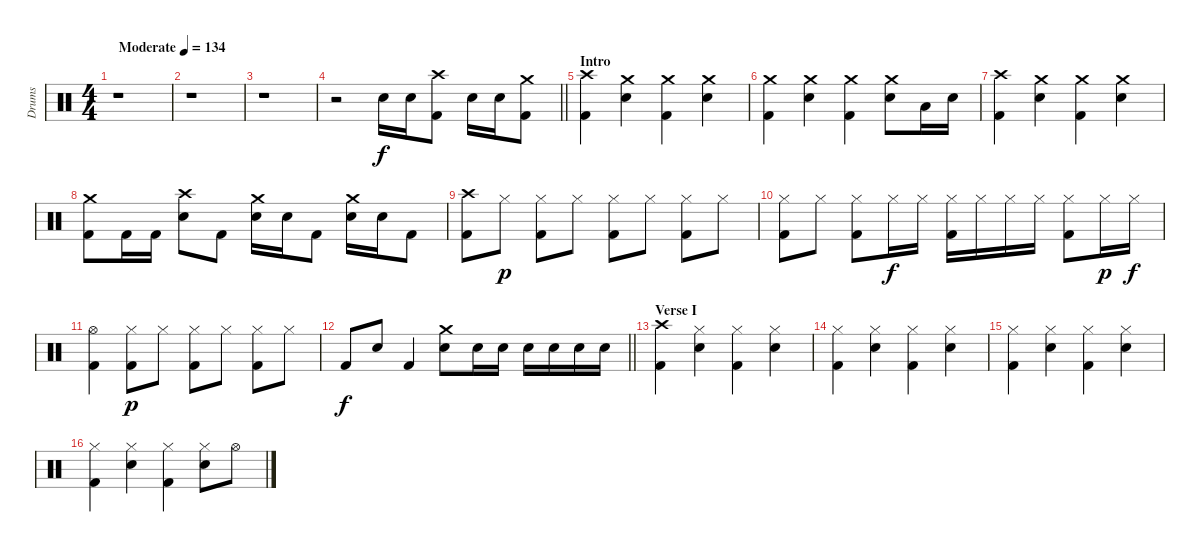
\track ("Drums" "Drums") {instrument percussion}
\staff {score}
\articulation defaults
\ts (4 4)
\tempo (134 "Moderate")
\clef neutral
\ks c
r.1{dy f} |
r.1 |
r.1 |
\barLineRight lightlight
r.2 "Snare (hit) 2".16 "Snare (hit) 2".16 ("Crash high (hit)" "Kick (hit) 2").8 "Snare (hit) 2".16 "Snare (hit) 2".16 ("Crash medium (hit)" "Kick (hit) 2").8 |
\section ("" "Intro")
("Crash high (hit)" "Kick (hit) 2").4 ("Crash medium (hit)" "Snare (hit) 2").4 ("Crash medium (hit)" "Kick (hit) 2").4 ("Crash medium (hit)" "Snare (hit) 2").4 |
("Crash medium (hit)" "Kick (hit) 2").4 ("Crash medium (hit)" "Snare (hit) 2").4 ("Crash medium (hit)" "Kick (hit) 2").4 ("Crash medium (hit)" "Snare (hit) 2").8 "Low Tom (hit)".16 "Snare (hit) 2".16 |
("Crash high (hit)" "Kick (hit) 2").4 ("Crash medium (hit)" "Snare (hit) 2").4 ("Crash medium (hit)" "Kick (hit) 2").4 ("Crash medium (hit)" "Snare (hit) 2").4 |
("Crash medium (hit)" "Kick (hit) 2").8 "Kick (hit) 2".16 "Kick (hit) 2".16 ("Crash high (hit)" "Snare (hit) 2").8 "Kick (hit) 2".8 ("Crash medium (hit)" "Snare (hit) 2").16 "Snare (hit) 2".16 "Kick (hit) 2".8 ("Crash medium (hit)" "Snare (hit) 2").16 "Snare (hit) 2".16 "Kick (hit) 2".8 |
("Crash high (hit)" "Kick (hit) 2").8 "Hi-Hat (closed)".8{dy p} ("Hi-Hat (closed)" "Kick (hit) 2").8 "Hi-Hat (closed)".8 ("Hi-Hat (closed)" "Kick (hit) 2").8 "Hi-Hat (closed)".8 ("Hi-Hat (closed)" "Kick (hit) 2").8 "Hi-Hat (closed)".8 |
("Hi-Hat (closed)" "Kick (hit) 2").8 "Hi-Hat (closed)".8 ("Hi-Hat (closed)" "Kick (hit) 2").8 "Hi-Hat (closed)".16{dy f} "Hi-Hat (closed)".16 ("Hi-Hat (closed)" "Kick (hit) 2").16 "Hi-Hat (closed)".16 "Hi-Hat (closed)".16 "Hi-Hat (closed)".16 ("Hi-Hat (closed)" "Kick (hit) 2").8 "Hi-Hat (closed)".16{dy p} "Hi-Hat (closed)".16{dy f} |
("Hi-Hat (open)" "Kick (hit) 2").4 ("Hi-Hat (closed)" "Kick (hit) 2").8{dy p} "Hi-Hat (closed)".8 ("Hi-Hat (closed)" "Kick (hit) 2").8 "Hi-Hat (closed)".8 ("Hi-Hat (closed)" "Kick (hit) 2").8 "Hi-Hat (closed)".8 |
\barLineRight lightlight "Kick (hit) 2".8{dy f} "Snare (hit) 2".8 "Kick (hit) 2".4
("Crash medium (hit)" "Snare (hit) 2").8 "Snare (hit) 2".16 "Snare (hit) 2".16 "Snare (hit) 2".16 "Snare (hit) 2".16 "Snare (hit) 2".16 "Snare (hit) 2".16 |
\section ("" "Verse I")
("Crash high (hit)" "Kick (hit) 2").4 ("Hi-Hat (closed)" "Snare (hit) 2").4 ("Hi-Hat (closed)" "Kick (hit) 2").4 ("Hi-Hat (closed)" "Snare (hit) 2").4 |
("Hi-Hat (closed)" "Kick (hit) 2").4 ("Hi-Hat (closed)" "Snare (hit) 2").4 ("Hi-Hat (closed)" "Kick (hit) 2").4 ("Hi-Hat (closed)" "Snare (hit) 2").4 |
("Hi-Hat (closed)" "Kick (hit) 2").4 ("Hi-Hat (closed)" "Snare (hit) 2").4 ("Hi-Hat (closed)" "Kick (hit) 2").4 ("Hi-Hat (closed)" "Snare (hit) 2").4 |
("Hi-Hat (closed)" "Kick (hit) 2").4 ("Hi-Hat (closed)" "Snare (hit) 2").4 ("Hi-Hat (closed)" "Kick (hit) 2").4 ("Hi-Hat (closed)" "Snare (hit) 2").8 "Hi-Hat (open)".8
